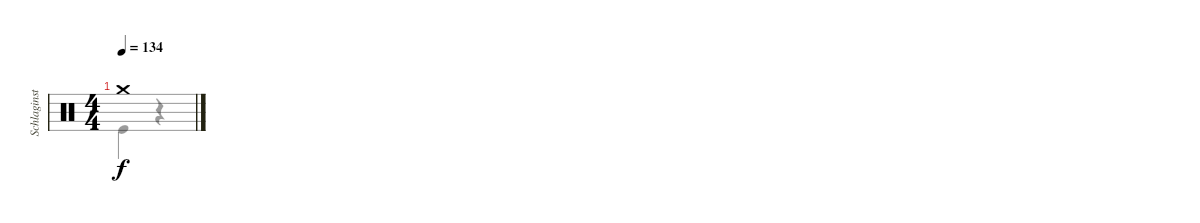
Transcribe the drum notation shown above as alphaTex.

\track ("Schlaginstrumente - Auswahl" "Schlaginst") {instrument percussion}
\staff {score}
\articulation defaults
\voice
\ts (4 4)
\tempo 134
\clef neutral
\ks c "Crash medium (hit)".1{dy f}
\voice
\clef neutral
\ks c "Kick (hit)".4{dy f}
r.4
